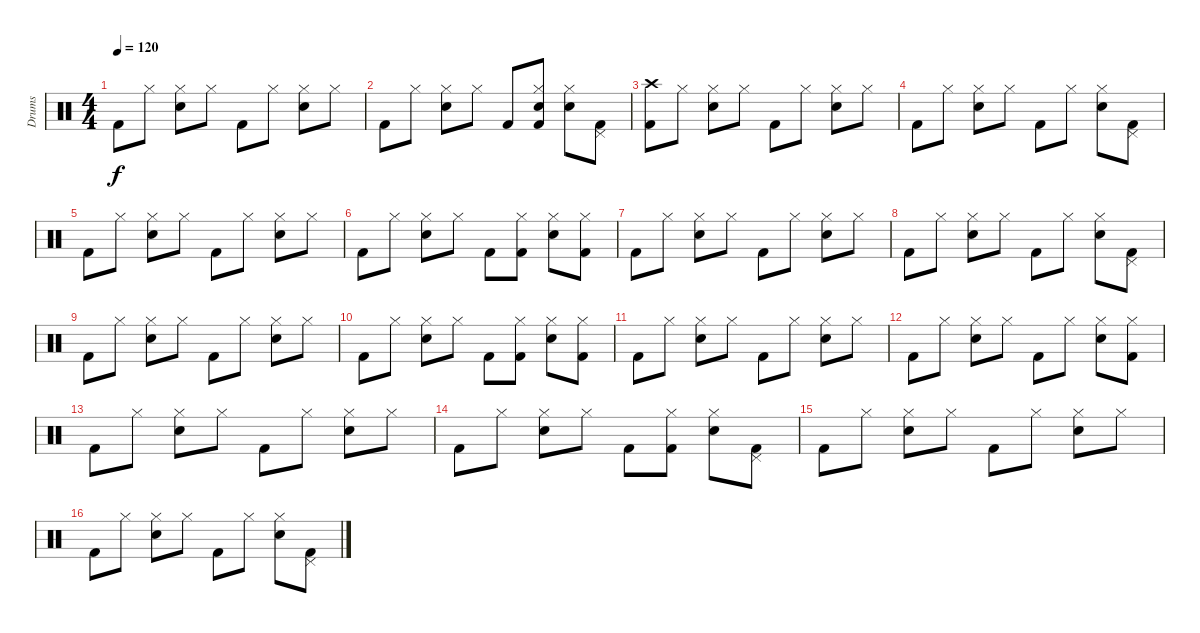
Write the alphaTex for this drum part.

\track ("Drums" "Drums") {instrument percussion}
\staff {score}
\articulation defaults
\ts (4 4)
\tempo 120
\clef neutral
\ks c "Kick (hit) 2".8{dy f} "Hi-Hat (closed)".8
("Hi-Hat (closed)" "Snare (hit) 2").8 "Hi-Hat (closed)".8 "Kick (hit) 2".8 "Hi-Hat (closed)".8 ("Hi-Hat (closed)" "Snare (hit) 2").8 "Hi-Hat (closed)".8 |
"Kick (hit) 2".8 "Hi-Hat (closed)".8 ("Hi-Hat (closed)" "Snare (hit) 2").8 "Hi-Hat (closed)".8 "Kick (hit) 2".8 ("Hi-Hat (closed)" "Snare (hit) 2" "Kick (hit) 2").8 ("Hi-Hat (closed)" "Snare (hit) 2").8 ("Pedal Hi-Hat (hit)" "Kick (hit) 2").8 |
("Crash high (hit)" "Kick (hit) 2").8 "Hi-Hat (closed)".8 ("Hi-Hat (closed)" "Snare (hit) 2").8 "Hi-Hat (closed)".8 "Kick (hit) 2".8 "Hi-Hat (closed)".8 ("Hi-Hat (closed)" "Snare (hit) 2").8 "Hi-Hat (closed)".8 |
"Kick (hit) 2".8 "Hi-Hat (closed)".8 ("Hi-Hat (closed)" "Snare (hit) 2").8 "Hi-Hat (closed)".8 "Kick (hit) 2".8 "Hi-Hat (closed)".8 ("Hi-Hat (closed)" "Snare (hit) 2").8 ("Pedal Hi-Hat (hit)" "Kick (hit) 2").8 |
"Kick (hit) 2".8 "Hi-Hat (closed)".8 ("Hi-Hat (closed)" "Snare (hit) 2").8 "Hi-Hat (closed)".8 "Kick (hit) 2".8 "Hi-Hat (closed)".8 ("Hi-Hat (closed)" "Snare (hit) 2").8 "Hi-Hat (closed)".8 |
"Kick (hit) 2".8 "Hi-Hat (closed)".8 ("Hi-Hat (closed)" "Snare (hit) 2").8 "Hi-Hat (closed)".8 "Kick (hit) 2".8 ("Hi-Hat (closed)" "Kick (hit) 2").8 ("Hi-Hat (closed)" "Snare (hit) 2").8 ("Hi-Hat (closed)" "Kick (hit) 2").8 |
"Kick (hit) 2".8 "Hi-Hat (closed)".8 ("Hi-Hat (closed)" "Snare (hit) 2").8 "Hi-Hat (closed)".8 "Kick (hit) 2".8 "Hi-Hat (closed)".8 ("Hi-Hat (closed)" "Snare (hit) 2").8 "Hi-Hat (closed)".8 |
"Kick (hit) 2".8 "Hi-Hat (closed)".8 ("Hi-Hat (closed)" "Snare (hit) 2").8 "Hi-Hat (closed)".8 "Kick (hit) 2".8 "Hi-Hat (closed)".8 ("Hi-Hat (closed)" "Snare (hit) 2").8 ("Pedal Hi-Hat (hit)" "Kick (hit) 2").8 |
"Kick (hit) 2".8 "Hi-Hat (closed)".8 ("Hi-Hat (closed)" "Snare (hit) 2").8 "Hi-Hat (closed)".8 "Kick (hit) 2".8 "Hi-Hat (closed)".8 ("Hi-Hat (closed)" "Snare (hit) 2").8 "Hi-Hat (closed)".8 |
"Kick (hit) 2".8 "Hi-Hat (closed)".8 ("Hi-Hat (closed)" "Snare (hit) 2").8 "Hi-Hat (closed)".8 "Kick (hit) 2".8 ("Hi-Hat (closed)" "Kick (hit) 2").8 ("Hi-Hat (closed)" "Snare (hit) 2").8 ("Hi-Hat (closed)" "Kick (hit) 2").8 |
"Kick (hit) 2".8 "Hi-Hat (closed)".8 ("Hi-Hat (closed)" "Snare (hit) 2").8 "Hi-Hat (closed)".8 "Kick (hit) 2".8 "Hi-Hat (closed)".8 ("Hi-Hat (closed)" "Snare (hit) 2").8 "Hi-Hat (closed)".8 |
"Kick (hit) 2".8 "Hi-Hat (closed)".8 ("Hi-Hat (closed)" "Snare (hit) 2").8 "Hi-Hat (closed)".8 "Kick (hit) 2".8 "Hi-Hat (closed)".8 ("Hi-Hat (closed)" "Snare (hit) 2").8 ("Hi-Hat (closed)" "Kick (hit) 2").8 |
"Kick (hit) 2".8 "Hi-Hat (closed)".8 ("Hi-Hat (closed)" "Snare (hit) 2").8 "Hi-Hat (closed)".8 "Kick (hit) 2".8 "Hi-Hat (closed)".8 ("Hi-Hat (closed)" "Snare (hit) 2").8 "Hi-Hat (closed)".8 |
"Kick (hit) 2".8 "Hi-Hat (closed)".8 ("Hi-Hat (closed)" "Snare (hit) 2").8 "Hi-Hat (closed)".8 "Kick (hit) 2".8 ("Hi-Hat (closed)" "Kick (hit) 2").8 ("Hi-Hat (closed)" "Snare (hit) 2").8 ("Pedal Hi-Hat (hit)" "Kick (hit) 2").8 |
"Kick (hit) 2".8 "Hi-Hat (closed)".8 ("Hi-Hat (closed)" "Snare (hit) 2").8 "Hi-Hat (closed)".8 "Kick (hit) 2".8 "Hi-Hat (closed)".8 ("Hi-Hat (closed)" "Snare (hit) 2").8 "Hi-Hat (closed)".8 |
"Kick (hit) 2".8 "Hi-Hat (closed)".8 ("Hi-Hat (closed)" "Snare (hit) 2").8 "Hi-Hat (closed)".8 "Kick (hit) 2".8 "Hi-Hat (closed)".8 ("Hi-Hat (closed)" "Snare (hit) 2").8 ("Pedal Hi-Hat (hit)" "Kick (hit) 2").8
